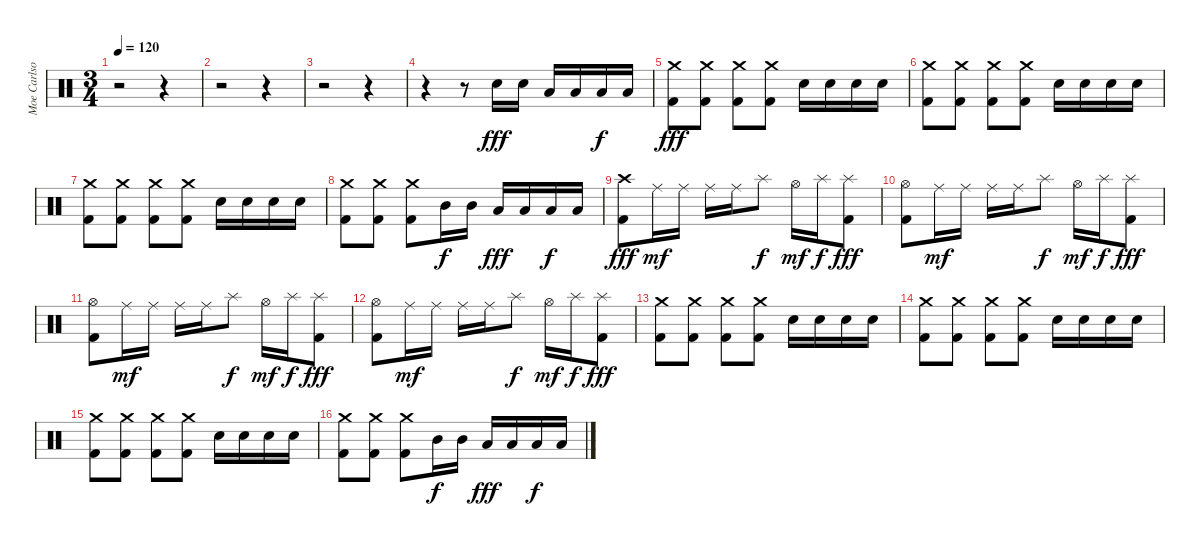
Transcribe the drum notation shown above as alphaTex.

\track ("Moe Carlson" "Moe Carlso") {instrument percussion}
\staff {score}
\articulation defaults
\ts (3 4)
\tempo 120
\clef neutral
\ks c
r.2{dy fff} r.4 |
r.2 r.4 |
r.2 r.4 |
r.4 r.8 "Electric Snare (hit)".16 "Electric Snare (hit)".16 "Low Tom (hit)".16 "Low Tom (hit)".16 "Low Floor Tom (hit)".16{dy f} "Low Floor Tom (hit)".16 |
("Crash medium (hit)" "Kick (hit) 2").8{dy fff} ("Crash medium (hit)" "Kick (hit) 2").8 ("Crash medium (hit)" "Kick (hit) 2").8 ("Crash medium (hit)" "Kick (hit) 2").8 "Electric Snare (hit)".16 "Electric Snare (hit)".16 "Electric Snare (hit)".16 "Electric Snare (hit)".16 |
("Crash medium (hit)" "Kick (hit) 2").8 ("Crash medium (hit)" "Kick (hit) 2").8 ("Crash medium (hit)" "Kick (hit) 2").8 ("Crash medium (hit)" "Kick (hit) 2").8 "Electric Snare (hit)".16 "Electric Snare (hit)".16 "Electric Snare (hit)".16 "Electric Snare (hit)".16 |
("Crash medium (hit)" "Kick (hit) 2").8 ("Crash medium (hit)" "Kick (hit) 2").8 ("Crash medium (hit)" "Kick (hit) 2").8 ("Crash medium (hit)" "Kick (hit) 2").8 "Electric Snare (hit)".16 "Electric Snare (hit)".16 "Electric Snare (hit)".16 "Electric Snare (hit)".16 |
("Crash medium (hit)" "Kick (hit) 2").8 ("Crash medium (hit)" "Kick (hit) 2").8 ("Crash medium (hit)" "Kick (hit) 2").8 "Mid Tom (hit)".16{dy f} "Mid Tom (hit)".16 "Low Tom (hit)".16{dy fff} "Low Tom (hit)".16 "Low Floor Tom (hit)".16{dy f} "Low Floor Tom (hit)".16 |
("Crash high (hit)" "Kick (hit) 2").8{dy fff} "Ride (middle)".16{dy mf} "Ride (middle)".16 "Ride (middle)".16 "Ride (middle)".16 "Splash (hit)".8{dy f} "Hi-Hat (open)".16{dy mf} "Splash (hit)".16{dy f} ("Splash (hit)" "Kick (hit) 2").8{dy fff} |
("Hi-Hat (open)" "Kick (hit) 2").8 "Ride (middle)".16{dy mf} "Ride (middle)".16 "Ride (middle)".16 "Ride (middle)".16 "Splash (hit)".8{dy f} "Hi-Hat (open)".16{dy mf} "Splash (hit)".16{dy f} ("Splash (hit)" "Kick (hit) 2").8{dy fff} |
("Hi-Hat (open)" "Kick (hit) 2").8 "Ride (middle)".16{dy mf} "Ride (middle)".16 "Ride (middle)".16 "Ride (middle)".16 "Splash (hit)".8{dy f} "Hi-Hat (open)".16{dy mf} "Splash (hit)".16{dy f} ("Splash (hit)" "Kick (hit) 2").8{dy fff} |
("Hi-Hat (open)" "Kick (hit) 2").8 "Ride (middle)".16{dy mf} "Ride (middle)".16 "Ride (middle)".16 "Ride (middle)".16 "Splash (hit)".8{dy f} "Hi-Hat (open)".16{dy mf} "Splash (hit)".16{dy f} ("Splash (hit)" "Kick (hit) 2").8{dy fff} |
("Crash medium (hit)" "Kick (hit) 2").8 ("Crash medium (hit)" "Kick (hit) 2").8 ("Crash medium (hit)" "Kick (hit) 2").8 ("Crash medium (hit)" "Kick (hit) 2").8 "Electric Snare (hit)".16 "Electric Snare (hit)".16 "Electric Snare (hit)".16 "Electric Snare (hit)".16 |
("Crash medium (hit)" "Kick (hit) 2").8 ("Crash medium (hit)" "Kick (hit) 2").8 ("Crash medium (hit)" "Kick (hit) 2").8 ("Crash medium (hit)" "Kick (hit) 2").8 "Electric Snare (hit)".16 "Electric Snare (hit)".16 "Electric Snare (hit)".16 "Electric Snare (hit)".16 |
("Crash medium (hit)" "Kick (hit) 2").8 ("Crash medium (hit)" "Kick (hit) 2").8 ("Crash medium (hit)" "Kick (hit) 2").8 ("Crash medium (hit)" "Kick (hit) 2").8 "Electric Snare (hit)".16 "Electric Snare (hit)".16 "Electric Snare (hit)".16 "Electric Snare (hit)".16 |
("Crash medium (hit)" "Kick (hit) 2").8 ("Crash medium (hit)" "Kick (hit) 2").8 ("Crash medium (hit)" "Kick (hit) 2").8 "Mid Tom (hit)".16{dy f} "Mid Tom (hit)".16 "Low Tom (hit)".16{dy fff} "Low Tom (hit)".16 "Low Floor Tom (hit)".16{dy f} "Low Floor Tom (hit)".16
